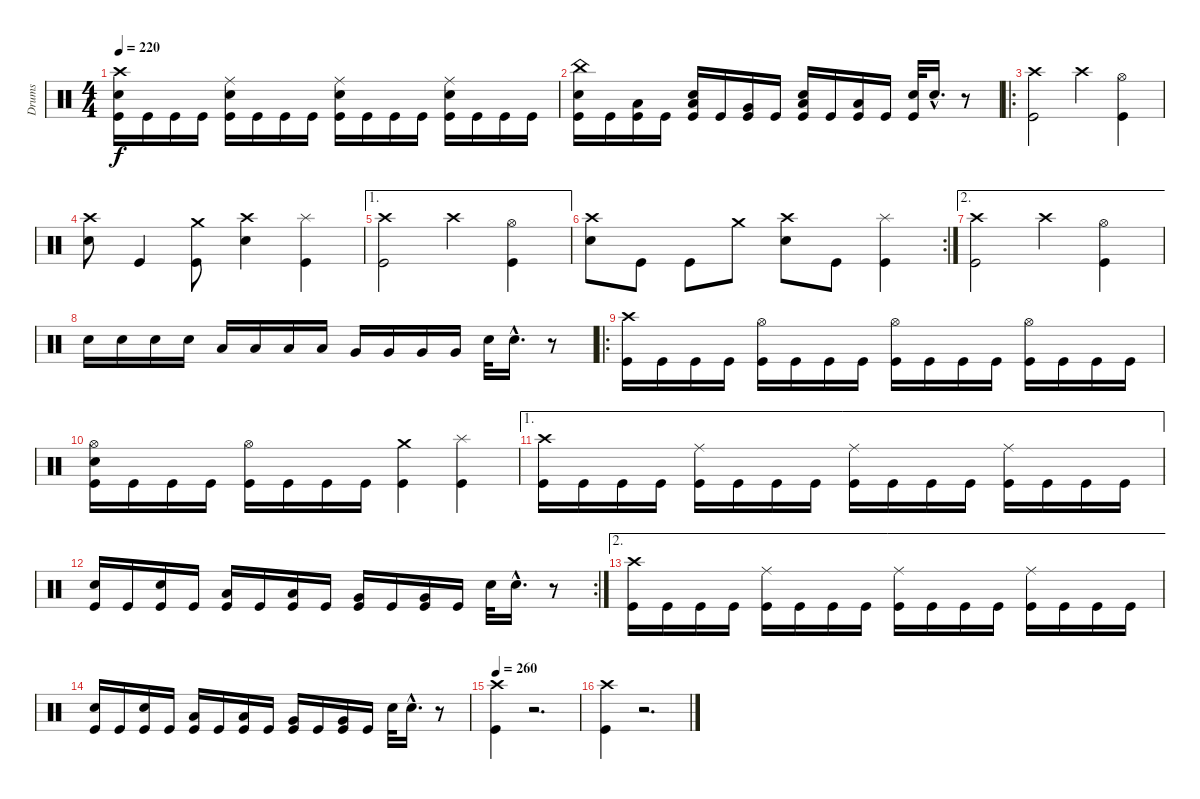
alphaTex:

\track ("Drums" "Drums") {instrument percussion}
\staff {score}
\articulation defaults
\ts (4 4)
\tempo 220
\clef neutral
\ks c
("Crash high (hit)" "Electric Snare (hit)" "Kick (hit)").16{dy f} "Kick (hit)".16 "Kick (hit)".16 "Kick (hit)".16 ("Ride (middle)" "Electric Snare (hit)" "Kick (hit)").16 "Kick (hit)".16 "Kick (hit)".16 "Kick (hit)".16 ("Ride (middle)" "Electric Snare (hit)" "Kick (hit)").16 "Kick (hit)".16 "Kick (hit)".16 "Kick (hit)".16 ("Ride (middle)" "Electric Snare (hit)" "Kick (hit)").16 "Kick (hit)".16 "Kick (hit)".16 "Kick (hit)".16 |
("China (hit)" "Electric Snare (hit)" "Kick (hit)").16 "Kick (hit)".16 ("Low Tom (hit)" "Kick (hit)").16 "Kick (hit)".16 ("Low Tom (hit)" "Electric Snare (hit)" "Kick (hit)").16 "Kick (hit)".16 ("Very Low Tom (hit)" "Kick (hit)").16 "Kick (hit)".16 ("Low Tom (hit)" "Electric Snare (hit)" "Kick (hit)").16 "Kick (hit)".16 ("Low Floor Tom (hit)" "Kick (hit)").16 "Kick (hit)".16 ("Electric Snare (hit)" "Kick (hit)").32 "Electric Snare (hit)"{hac}.16{d} r.8 |
\ro
("Crash high (hit)" "Kick (hit)").2 "Crash high (hit)".4 ("Hi-Hat (open)" "Kick (hit)").4 |
("Crash high (hit)" "Electric Snare (hit)").8 "Kick (hit)".4 ("Crash medium (hit)" "Kick (hit)").8 ("Crash high (hit)" "Electric Snare (hit)").4 ("Splash (hit)" "Kick (hit)").4 |
\ae 1
("Crash high (hit)" "Kick (hit)").2 "Crash high (hit)".4 ("Hi-Hat (open)" "Kick (hit)").4 |
\rc 2
("Crash high (hit)" "Electric Snare (hit)").8 "Kick (hit)".8 "Kick (hit)".8 "Crash medium (hit)".8 ("Crash high (hit)" "Electric Snare (hit)").8 "Kick (hit)".8 ("Splash (hit)" "Kick (hit)").4 |
\ae 2
("Crash high (hit)" "Kick (hit)").2 "Crash high (hit)".4 ("Hi-Hat (open)" "Kick (hit)").4 |
"Electric Snare (hit)".16 "Electric Snare (hit)".16 "Electric Snare (hit)".16 "Electric Snare (hit)".16 "Low Tom (hit)".16 "Low Tom (hit)".16 "Low Tom (hit)".16 "Low Tom (hit)".16 "Very Low Tom (hit)".16 "Very Low Tom (hit)".16 "Very Low Tom (hit)".16 "Very Low Tom (hit)".16 "Electric Snare (hit)".32 "Electric Snare (hit)"{hac}.16{d} r.8 |
\ro
("Crash high (hit)" "Kick (hit)").16 "Kick (hit)".16 "Kick (hit)".16 "Kick (hit)".16 ("Hi-Hat (open)" "Kick (hit)").16 "Kick (hit)".16 "Kick (hit)".16 "Kick (hit)".16 ("Hi-Hat (open)" "Kick (hit)").16 "Kick (hit)".16 "Kick (hit)".16 "Kick (hit)".16 ("Hi-Hat (open)" "Kick (hit)").16 "Kick (hit)".16 "Kick (hit)".16 "Kick (hit)".16 |
("Hi-Hat (open)" "Electric Snare (hit)" "Kick (hit)").16 "Kick (hit)".16 "Kick (hit)".16 "Kick (hit)".16 ("Hi-Hat (open)" "Kick (hit)").16 "Kick (hit)".16 "Kick (hit)".16 "Kick (hit)".16 ("Crash medium (hit)" "Kick (hit)").4 ("Splash (hit)" "Kick (hit)").4 |
\ae 1
("Crash high (hit)" "Kick (hit)").16 "Kick (hit)".16 "Kick (hit)".16 "Kick (hit)".16 ("Ride (middle)" "Kick (hit)").16 "Kick (hit)".16 "Kick (hit)".16 "Kick (hit)".16 ("Ride (middle)" "Kick (hit)").16 "Kick (hit)".16 "Kick (hit)".16 "Kick (hit)".16 ("Ride (middle)" "Kick (hit)").16 "Kick (hit)".16 "Kick (hit)".16 "Kick (hit)".16 |
\rc 2
("Electric Snare (hit)" "Kick (hit)").16 "Kick (hit)".16 ("Electric Snare (hit)" "Kick (hit)").16 "Kick (hit)".16 ("Low Tom (hit)" "Kick (hit)").16 "Kick (hit)".16 ("Low Tom (hit)" "Kick (hit)").16 "Kick (hit)".16 ("Very Low Tom (hit)" "Kick (hit)").16 "Kick (hit)".16 ("Very Low Tom (hit)" "Kick (hit)").16 "Kick (hit)".16 "Electric Snare (hit)".32 "Electric Snare (hit)"{hac}.16{d} r.8 |
\ae 2
("Crash high (hit)" "Kick (hit)").16 "Kick (hit)".16 "Kick (hit)".16 "Kick (hit)".16 ("Ride (middle)" "Kick (hit)").16 "Kick (hit)".16 "Kick (hit)".16 "Kick (hit)".16 ("Ride (middle)" "Kick (hit)").16 "Kick (hit)".16 "Kick (hit)".16 "Kick (hit)".16 ("Ride (middle)" "Kick (hit)").16 "Kick (hit)".16 "Kick (hit)".16 "Kick (hit)".16 |
("Electric Snare (hit)" "Kick (hit)").16 "Kick (hit)".16 ("Electric Snare (hit)" "Kick (hit)").16 "Kick (hit)".16 ("Low Tom (hit)" "Kick (hit)").16 "Kick (hit)".16 ("Low Tom (hit)" "Kick (hit)").16 "Kick (hit)".16 ("Very Low Tom (hit)" "Kick (hit)").16 "Kick (hit)".16 ("Very Low Tom (hit)" "Kick (hit)").16 "Kick (hit)".16 "Electric Snare (hit)".32 "Electric Snare (hit)"{hac}.16{d} r.8 |
\tempo 260
("Crash high (hit)" "Kick (hit)").4 r.2{d volume 0} |
("Crash high (hit)" "Kick (hit)").4{volume 16} r.2{d volume 0}
